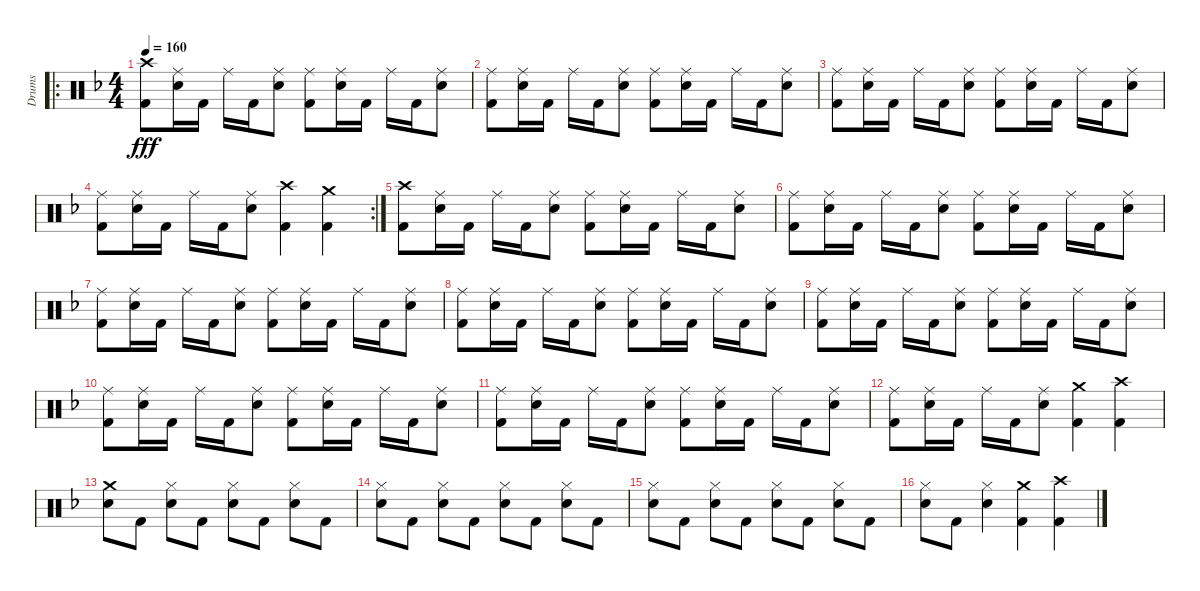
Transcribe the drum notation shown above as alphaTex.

\track ("Drums" "Drums") {instrument percussion}
\staff {score}
\articulation defaults
\ro
\ts (4 4)
\tempo 160
\clef neutral
\ks f
("Crash high (hit)" "Kick (hit) 2").8{dy fff} ("Ride (middle)" "Electric Snare (hit)").16 "Kick (hit) 2".16 "Ride (middle)".16 "Kick (hit) 2".16 ("Ride (middle)" "Electric Snare (hit)").8 ("Ride (middle)" "Kick (hit) 2").8 ("Ride (middle)" "Electric Snare (hit)").16 "Kick (hit) 2".16 "Ride (middle)".16 "Kick (hit) 2".16 ("Ride (middle)" "Electric Snare (hit)").8 |
("Ride (middle)" "Kick (hit) 2").8 ("Ride (middle)" "Electric Snare (hit)").16 "Kick (hit) 2".16 "Ride (middle)".16 "Kick (hit) 2".16 ("Ride (middle)" "Electric Snare (hit)").8 ("Ride (middle)" "Kick (hit) 2").8 ("Ride (middle)" "Electric Snare (hit)").16 "Kick (hit) 2".16 "Ride (middle)".16 "Kick (hit) 2".16 ("Ride (middle)" "Electric Snare (hit)").8 |
("Ride (middle)" "Kick (hit) 2").8 ("Ride (middle)" "Electric Snare (hit)").16 "Kick (hit) 2".16 "Ride (middle)".16 "Kick (hit) 2".16 ("Ride (middle)" "Electric Snare (hit)").8 ("Ride (middle)" "Kick (hit) 2").8 ("Ride (middle)" "Electric Snare (hit)").16 "Kick (hit) 2".16 "Ride (middle)".16 "Kick (hit) 2".16 ("Ride (middle)" "Electric Snare (hit)").8 |
\rc 2
("Ride (middle)" "Kick (hit) 2").8 ("Ride (middle)" "Electric Snare (hit)").16 "Kick (hit) 2".16 "Ride (middle)".16 "Kick (hit) 2".16 ("Ride (middle)" "Electric Snare (hit)").8 ("Crash high (hit)" "Kick (hit) 2").4 ("Crash medium (hit)" "Kick (hit) 2").4 |
("Crash high (hit)" "Kick (hit) 2").8 ("Ride (middle)" "Electric Snare (hit)").16 "Kick (hit) 2".16 "Ride (middle)".16 "Kick (hit) 2".16 ("Ride (middle)" "Electric Snare (hit)").8 ("Ride (middle)" "Kick (hit) 2").8 ("Ride (middle)" "Electric Snare (hit)").16 "Kick (hit) 2".16 "Ride (middle)".16 "Kick (hit) 2".16 ("Ride (middle)" "Electric Snare (hit)").8 |
("Ride (middle)" "Kick (hit) 2").8 ("Ride (middle)" "Electric Snare (hit)").16 "Kick (hit) 2".16 "Ride (middle)".16 "Kick (hit) 2".16 ("Ride (middle)" "Electric Snare (hit)").8 ("Ride (middle)" "Kick (hit) 2").8 ("Ride (middle)" "Electric Snare (hit)").16 "Kick (hit) 2".16 "Ride (middle)".16 "Kick (hit) 2".16 ("Ride (middle)" "Electric Snare (hit)").8 |
("Ride (middle)" "Kick (hit) 2").8 ("Ride (middle)" "Electric Snare (hit)").16 "Kick (hit) 2".16 "Ride (middle)".16 "Kick (hit) 2".16 ("Ride (middle)" "Electric Snare (hit)").8 ("Ride (middle)" "Kick (hit) 2").8 ("Ride (middle)" "Electric Snare (hit)").16 "Kick (hit) 2".16 "Ride (middle)".16 "Kick (hit) 2".16 ("Ride (middle)" "Electric Snare (hit)").8 |
("Ride (middle)" "Kick (hit) 2").8 ("Ride (middle)" "Electric Snare (hit)").16 "Kick (hit) 2".16 "Ride (middle)".16 "Kick (hit) 2".16 ("Ride (middle)" "Electric Snare (hit)").8 ("Ride (middle)" "Kick (hit) 2").8 ("Ride (middle)" "Electric Snare (hit)").16 "Kick (hit) 2".16 "Ride (middle)".16 "Kick (hit) 2".16 ("Ride (middle)" "Electric Snare (hit)").8 |
("Ride (middle)" "Kick (hit) 2").8 ("Ride (middle)" "Electric Snare (hit)").16 "Kick (hit) 2".16 "Ride (middle)".16 "Kick (hit) 2".16 ("Ride (middle)" "Electric Snare (hit)").8 ("Ride (middle)" "Kick (hit) 2").8 ("Ride (middle)" "Electric Snare (hit)").16 "Kick (hit) 2".16 "Ride (middle)".16 "Kick (hit) 2".16 ("Ride (middle)" "Electric Snare (hit)").8 |
("Ride (middle)" "Kick (hit) 2").8 ("Ride (middle)" "Electric Snare (hit)").16 "Kick (hit) 2".16 "Ride (middle)".16 "Kick (hit) 2".16 ("Ride (middle)" "Electric Snare (hit)").8 ("Ride (middle)" "Kick (hit) 2").8 ("Ride (middle)" "Electric Snare (hit)").16 "Kick (hit) 2".16 "Ride (middle)".16 "Kick (hit) 2".16 ("Ride (middle)" "Electric Snare (hit)").8 |
("Ride (middle)" "Kick (hit) 2").8 ("Ride (middle)" "Electric Snare (hit)").16 "Kick (hit) 2".16 "Ride (middle)".16 "Kick (hit) 2".16 ("Ride (middle)" "Electric Snare (hit)").8 ("Ride (middle)" "Kick (hit) 2").8 ("Ride (middle)" "Electric Snare (hit)").16 "Kick (hit) 2".16 "Ride (middle)".16 "Kick (hit) 2".16 ("Ride (middle)" "Electric Snare (hit)").8 |
("Ride (middle)" "Kick (hit) 2").8 ("Ride (middle)" "Electric Snare (hit)").16 "Kick (hit) 2".16 "Ride (middle)".16 "Kick (hit) 2".16 ("Ride (middle)" "Electric Snare (hit)").8 ("Crash medium (hit)" "Kick (hit) 2").4 ("Crash high (hit)" "Kick (hit) 2").4 |
("Crash medium (hit)" "Electric Snare (hit)").8 "Kick (hit) 2".8 ("Hi-Hat (closed)" "Electric Snare (hit)").8 "Kick (hit) 2".8 ("Hi-Hat (closed)" "Electric Snare (hit)").8 "Kick (hit) 2".8 ("Hi-Hat (closed)" "Electric Snare (hit)").8 "Kick (hit) 2".8 |
("Hi-Hat (closed)" "Electric Snare (hit)").8 "Kick (hit) 2".8 ("Hi-Hat (closed)" "Electric Snare (hit)").8 "Kick (hit) 2".8 ("Hi-Hat (closed)" "Electric Snare (hit)").8 "Kick (hit) 2".8 ("Hi-Hat (closed)" "Electric Snare (hit)").8 "Kick (hit) 2".8 |
("Hi-Hat (closed)" "Electric Snare (hit)").8 "Kick (hit) 2".8 ("Hi-Hat (closed)" "Electric Snare (hit)").8 "Kick (hit) 2".8 ("Hi-Hat (closed)" "Electric Snare (hit)").8 "Kick (hit) 2".8 ("Hi-Hat (closed)" "Electric Snare (hit)").8 "Kick (hit) 2".8 |
("Hi-Hat (closed)" "Electric Snare (hit)").8 "Kick (hit) 2".8 ("Hi-Hat (closed)" "Electric Snare (hit)").4 ("Crash medium (hit)" "Kick (hit) 2").4 ("Crash high (hit)" "Kick (hit) 2").4
